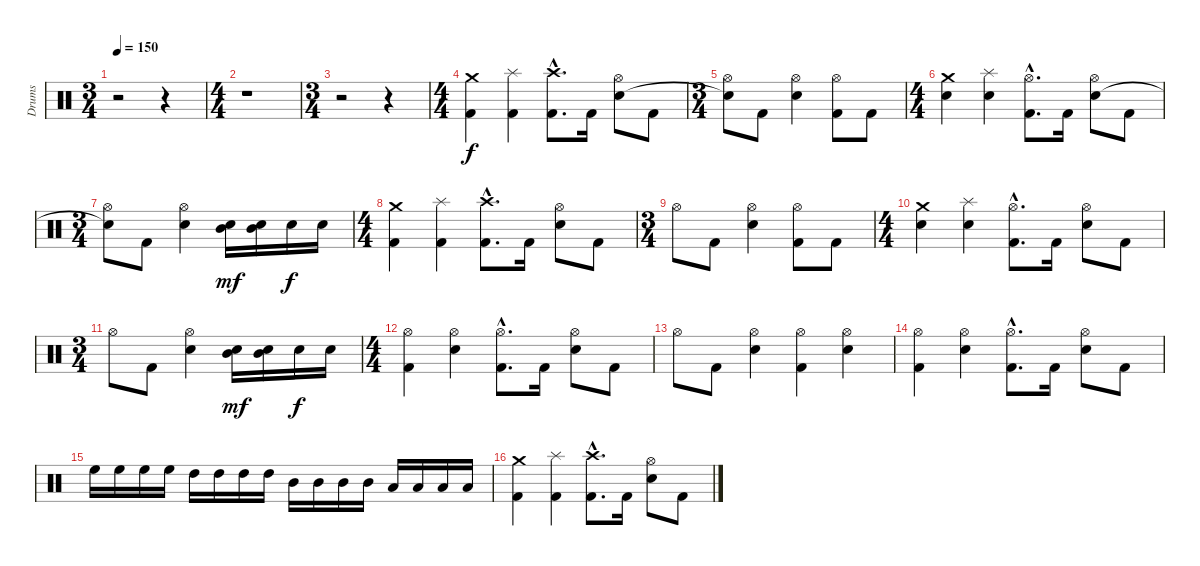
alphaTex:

\track ("Drums" "Drums") {instrument percussion}
\staff {score}
\articulation defaults
\ts (3 4)
\tempo 150
\clef neutral
\ks c
r.2{dy f} r.4 |
\ts (4 4)
r.1 |
\ts (3 4)
r.2 r.4 |
\ts (4 4)
("Crash medium (hit)" "Kick (hit) 2").4 ("Splash (hit)" "Kick (hit) 2").4 ("Crash high (hit)"{hac} "Kick (hit) 2"{hac}).8{d} "Kick (hit) 2".16 ("Hi-Hat (open)" "Electric Snare (hit)").8 "Kick (hit) 2".8 |
\ts (3 4)
("Hi-Hat (open)" "Snare (hit)"{t}).8 "Kick (hit) 2".8 ("Hi-Hat (open)" "Electric Snare (hit)").4 ("Hi-Hat (open)" "Kick (hit) 2").8 "Kick (hit) 2".8 |
\ts (4 4)
("Crash medium (hit)" "Electric Snare (hit)").4 ("Splash (hit)" "Electric Snare (hit)").4 ("Hi-Hat (open)"{hac} "Kick (hit) 2"{hac}).8{d} "Kick (hit) 2".16 ("Hi-Hat (open)" "Electric Snare (hit)").8 "Kick (hit) 2".8 |
\ts (3 4)
("Hi-Hat (open)" "Snare (hit)"{t}).8 "Kick (hit) 2".8 ("Hi-Hat (open)" "Electric Snare (hit)").4 ("Mid Tom (hit)" "Electric Snare (hit)").16{dy mf} ("Mid Tom (hit)" "Electric Snare (hit)").16 "Electric Snare (hit)".16{dy f} "Electric Snare (hit)".16 |
\ts (4 4)
("Crash medium (hit)" "Kick (hit) 2").4 ("Splash (hit)" "Kick (hit) 2").4 ("Crash high (hit)"{hac} "Kick (hit) 2"{hac}).8{d} "Kick (hit) 2".16 ("Hi-Hat (open)" "Electric Snare (hit)").8 "Kick (hit) 2".8 |
\ts (3 4)
"Hi-Hat (open)".8 "Kick (hit) 2".8 ("Hi-Hat (open)" "Electric Snare (hit)").4 ("Hi-Hat (open)" "Kick (hit) 2").8 "Kick (hit) 2".8 |
\ts (4 4)
("Crash medium (hit)" "Electric Snare (hit)").4 ("Splash (hit)" "Electric Snare (hit)").4 ("Hi-Hat (open)"{hac} "Kick (hit) 2"{hac}).8{d} "Kick (hit) 2".16 ("Hi-Hat (open)" "Electric Snare (hit)").8 "Kick (hit) 2".8 |
\ts (3 4)
"Hi-Hat (open)".8 "Kick (hit) 2".8 ("Hi-Hat (open)" "Electric Snare (hit)").4 ("Mid Tom (hit)" "Electric Snare (hit)").16{dy mf} ("Mid Tom (hit)" "Electric Snare (hit)").16 "Electric Snare (hit)".16{dy f} "Electric Snare (hit)".16 |
\ts (4 4)
("Hi-Hat (open)" "Kick (hit) 2").4 ("Hi-Hat (open)" "Electric Snare (hit)").4 ("Hi-Hat (open)"{hac} "Kick (hit) 2"{hac}).8{d} "Kick (hit) 2".16 ("Hi-Hat (open)" "Electric Snare (hit)").8 "Kick (hit) 2".8 |
"Hi-Hat (open)".8 "Kick (hit) 2".8 ("Hi-Hat (open)" "Electric Snare (hit)").4 ("Hi-Hat (open)" "Kick (hit) 2").4 ("Hi-Hat (open)" "Electric Snare (hit)").4 |
("Hi-Hat (open)" "Kick (hit) 2").4 ("Hi-Hat (open)" "Electric Snare (hit)").4 ("Hi-Hat (open)"{hac} "Kick (hit) 2"{hac}).8{d} "Kick (hit) 2".16 ("Hi-Hat (open)" "Electric Snare (hit)").8 "Kick (hit) 2".8 |
"High Floor Tom (hit)".16 "High Floor Tom (hit)".16 "High Floor Tom (hit)".16 "High Floor Tom (hit)".16 "High Tom (hit)".16 "High Tom (hit)".16 "High Tom (hit)".16 "High Tom (hit)".16 "Mid Tom (hit)".16 "Mid Tom (hit)".16 "Mid Tom (hit)".16 "Mid Tom (hit)".16 "Low Tom (hit)".16 "Low Tom (hit)".16 "Low Tom (hit)".16 "Low Tom (hit)".16 |
("Crash medium (hit)" "Kick (hit) 2").4 ("Splash (hit)" "Kick (hit) 2").4 ("Crash high (hit)"{hac} "Kick (hit) 2"{hac}).8{d} "Kick (hit) 2".16 ("Hi-Hat (open)" "Electric Snare (hit)").8 "Kick (hit) 2".8
